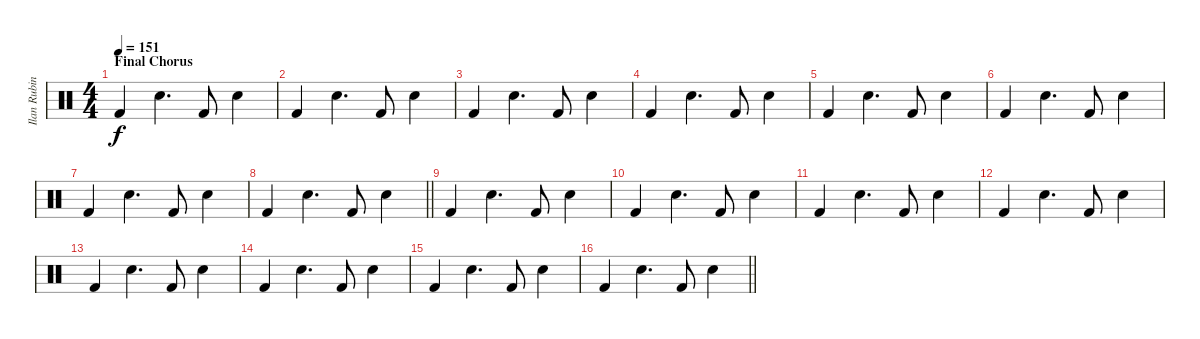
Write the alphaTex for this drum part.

\track ("Ilan Rubin [Drums]" "Ilan Rubin") {instrument percussion}
\staff {score}
\articulation defaults
\ts (4 4)
\section ("" "Final Chorus")
\tempo 151
\clef neutral
\ks c "Kick (hit) 2".4{dy f} "Snare (hit) 2".4{d} "Kick (hit) 2".8 "Snare (hit) 2".4
|
"Kick (hit) 2".4 "Snare (hit) 2".4{d} "Kick (hit) 2".8 "Snare (hit) 2".4 |
"Kick (hit) 2".4 "Snare (hit) 2".4{d} "Kick (hit) 2".8 "Snare (hit) 2".4 |
"Kick (hit) 2".4 "Snare (hit) 2".4{d} "Kick (hit) 2".8 "Snare (hit) 2".4 |
"Kick (hit) 2".4 "Snare (hit) 2".4{d} "Kick (hit) 2".8 "Snare (hit) 2".4 |
"Kick (hit) 2".4 "Snare (hit) 2".4{d} "Kick (hit) 2".8 "Snare (hit) 2".4 |
"Kick (hit) 2".4 "Snare (hit) 2".4{d} "Kick (hit) 2".8 "Snare (hit) 2".4 |
\barLineRight lightlight "Kick (hit) 2".4 "Snare (hit) 2".4{d} "Kick (hit) 2".8 "Snare (hit) 2".4
|
"Kick (hit) 2".4 "Snare (hit) 2".4{d} "Kick (hit) 2".8 "Snare (hit) 2".4 |
"Kick (hit) 2".4 "Snare (hit) 2".4{d} "Kick (hit) 2".8 "Snare (hit) 2".4 |
"Kick (hit) 2".4 "Snare (hit) 2".4{d} "Kick (hit) 2".8 "Snare (hit) 2".4 |
"Kick (hit) 2".4 "Snare (hit) 2".4{d} "Kick (hit) 2".8 "Snare (hit) 2".4 |
"Kick (hit) 2".4 "Snare (hit) 2".4{d} "Kick (hit) 2".8 "Snare (hit) 2".4 |
"Kick (hit) 2".4 "Snare (hit) 2".4{d} "Kick (hit) 2".8 "Snare (hit) 2".4 |
"Kick (hit) 2".4 "Snare (hit) 2".4{d} "Kick (hit) 2".8 "Snare (hit) 2".4 |
\barLineRight lightlight "Kick (hit) 2".4 "Snare (hit) 2".4{d} "Kick (hit) 2".8 "Snare (hit) 2".4
